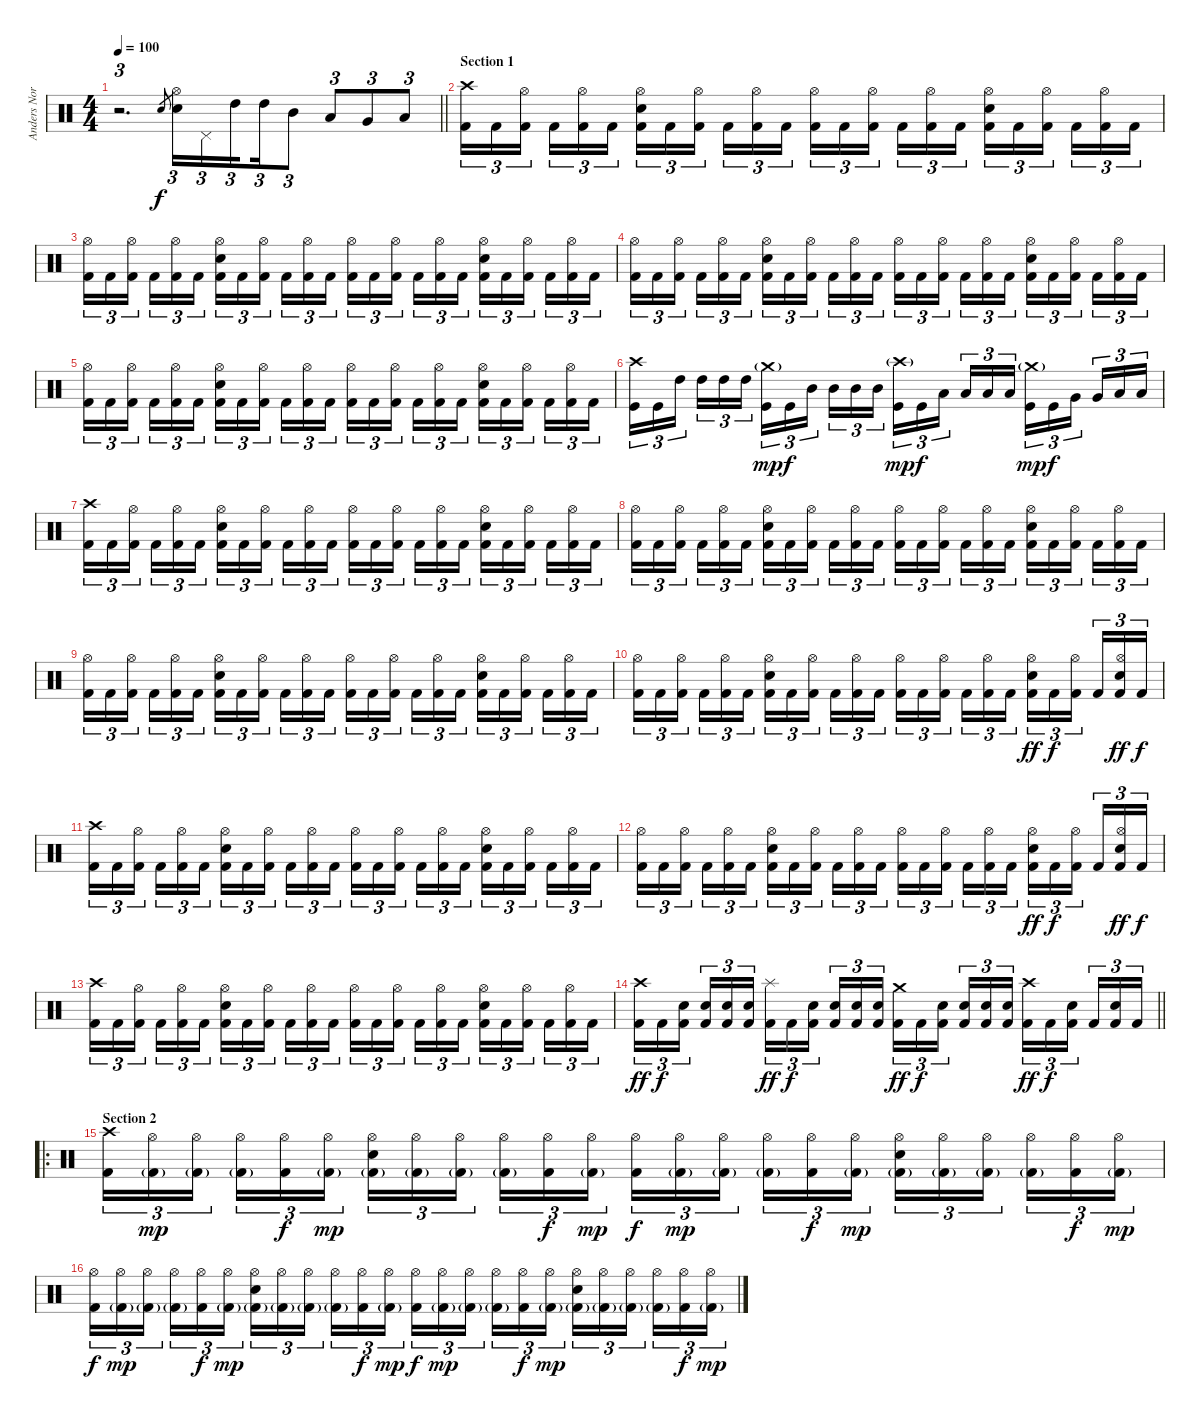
\track ("Anders Nordin" "Anders Nor") {instrument percussion}
\staff {score}
\articulation defaults
\ts (4 4)
\tempo 100
\clef neutral
\barLineRight lightlight
\ks c
r.2{d tu (3 2) dy f} "Snare (hit) 2".8{gr} ("Hi-Hat (open)" "Electric Snare (hit)").16{tu (3 2)} "Pedal Hi-Hat (hit)".16{tu (3 2)} "High Tom (hit)".16{tu (3 2) beam splitsecondary} "High Tom (hit)".16{tu (3 2)} "Mid Tom (hit)".8{tu (3 2)} "Low Tom (hit)".8{tu (3 2)} "Very Low Tom (hit)".8{tu (3 2)} "Low Floor Tom (hit)".8{tu (3 2)} |
\section ("" "Section 1")
("Crash high (hit)" "Kick (hit) 2").16{tu (3 2)} "Kick (hit) 2".16{tu (3 2)} ("Hi-Hat (open)" "Kick (hit) 2").16{tu (3 2) beam splitsecondary} "Kick (hit) 2".16{tu (3 2)} ("Hi-Hat (open)" "Kick (hit) 2").16{tu (3 2)} "Kick (hit) 2".16{tu (3 2)} ("Hi-Hat (open)" "Snare (hit) 2" "Kick (hit) 2").16{tu (3 2)} "Kick (hit) 2".16{tu (3 2)} ("Hi-Hat (open)" "Kick (hit) 2").16{tu (3 2) beam splitsecondary} "Kick (hit) 2".16{tu (3 2)} ("Hi-Hat (open)" "Kick (hit) 2").16{tu (3 2)} "Kick (hit) 2".16{tu (3 2)} ("Hi-Hat (open)" "Kick (hit) 2").16{tu (3 2)} "Kick (hit) 2".16{tu (3 2)} ("Hi-Hat (open)" "Kick (hit) 2").16{tu (3 2) beam splitsecondary} "Kick (hit) 2".16{tu (3 2)} ("Hi-Hat (open)" "Kick (hit) 2").16{tu (3 2)} "Kick (hit) 2".16{tu (3 2)} ("Hi-Hat (open)" "Snare (hit) 2" "Kick (hit) 2").16{tu (3 2)} "Kick (hit) 2".16{tu (3 2)} ("Hi-Hat (open)" "Kick (hit) 2").16{tu (3 2) beam splitsecondary} "Kick (hit) 2".16{tu (3 2)} ("Hi-Hat (open)" "Kick (hit) 2").16{tu (3 2)} "Kick (hit) 2".16{tu (3 2)} |
("Hi-Hat (open)" "Kick (hit) 2").16{tu (3 2)} "Kick (hit) 2".16{tu (3 2)} ("Hi-Hat (open)" "Kick (hit) 2").16{tu (3 2) beam splitsecondary} "Kick (hit) 2".16{tu (3 2)} ("Hi-Hat (open)" "Kick (hit) 2").16{tu (3 2)} "Kick (hit) 2".16{tu (3 2)} ("Hi-Hat (open)" "Snare (hit) 2" "Kick (hit) 2").16{tu (3 2)} "Kick (hit) 2".16{tu (3 2)} ("Hi-Hat (open)" "Kick (hit) 2").16{tu (3 2) beam splitsecondary} "Kick (hit) 2".16{tu (3 2)} ("Hi-Hat (open)" "Kick (hit) 2").16{tu (3 2)} "Kick (hit) 2".16{tu (3 2)} ("Hi-Hat (open)" "Kick (hit) 2").16{tu (3 2)} "Kick (hit) 2".16{tu (3 2)} ("Hi-Hat (open)" "Kick (hit) 2").16{tu (3 2) beam splitsecondary} "Kick (hit) 2".16{tu (3 2)} ("Hi-Hat (open)" "Kick (hit) 2").16{tu (3 2)} "Kick (hit) 2".16{tu (3 2)} ("Hi-Hat (open)" "Snare (hit) 2" "Kick (hit) 2").16{tu (3 2)} "Kick (hit) 2".16{tu (3 2)} ("Hi-Hat (open)" "Kick (hit) 2").16{tu (3 2) beam splitsecondary} "Kick (hit) 2".16{tu (3 2)} ("Hi-Hat (open)" "Kick (hit) 2").16{tu (3 2)} "Kick (hit) 2".16{tu (3 2)} |
("Hi-Hat (open)" "Kick (hit) 2").16{tu (3 2)} "Kick (hit) 2".16{tu (3 2)} ("Hi-Hat (open)" "Kick (hit) 2").16{tu (3 2) beam splitsecondary} "Kick (hit) 2".16{tu (3 2)} ("Hi-Hat (open)" "Kick (hit) 2").16{tu (3 2)} "Kick (hit) 2".16{tu (3 2)} ("Hi-Hat (open)" "Snare (hit) 2" "Kick (hit) 2").16{tu (3 2)} "Kick (hit) 2".16{tu (3 2)} ("Hi-Hat (open)" "Kick (hit) 2").16{tu (3 2) beam splitsecondary} "Kick (hit) 2".16{tu (3 2)} ("Hi-Hat (open)" "Kick (hit) 2").16{tu (3 2)} "Kick (hit) 2".16{tu (3 2)} ("Hi-Hat (open)" "Kick (hit) 2").16{tu (3 2)} "Kick (hit) 2".16{tu (3 2)} ("Hi-Hat (open)" "Kick (hit) 2").16{tu (3 2) beam splitsecondary} "Kick (hit) 2".16{tu (3 2)} ("Hi-Hat (open)" "Kick (hit) 2").16{tu (3 2)} "Kick (hit) 2".16{tu (3 2)} ("Hi-Hat (open)" "Snare (hit) 2" "Kick (hit) 2").16{tu (3 2)} "Kick (hit) 2".16{tu (3 2)} ("Hi-Hat (open)" "Kick (hit) 2").16{tu (3 2) beam splitsecondary} "Kick (hit) 2".16{tu (3 2)} ("Hi-Hat (open)" "Kick (hit) 2").16{tu (3 2)} "Kick (hit) 2".16{tu (3 2)} |
("Hi-Hat (open)" "Kick (hit) 2").16{tu (3 2)} "Kick (hit) 2".16{tu (3 2)} ("Hi-Hat (open)" "Kick (hit) 2").16{tu (3 2) beam splitsecondary} "Kick (hit) 2".16{tu (3 2)} ("Hi-Hat (open)" "Kick (hit) 2").16{tu (3 2)} "Kick (hit) 2".16{tu (3 2)} ("Hi-Hat (open)" "Snare (hit) 2" "Kick (hit) 2").16{tu (3 2)} "Kick (hit) 2".16{tu (3 2)} ("Hi-Hat (open)" "Kick (hit) 2").16{tu (3 2) beam splitsecondary} "Kick (hit) 2".16{tu (3 2)} ("Hi-Hat (open)" "Kick (hit) 2").16{tu (3 2)} "Kick (hit) 2".16{tu (3 2)} ("Hi-Hat (open)" "Kick (hit) 2").16{tu (3 2)} "Kick (hit) 2".16{tu (3 2)} ("Hi-Hat (open)" "Kick (hit) 2").16{tu (3 2) beam splitsecondary} "Kick (hit) 2".16{tu (3 2)} ("Hi-Hat (open)" "Kick (hit) 2").16{tu (3 2)} "Kick (hit) 2".16{tu (3 2)} ("Hi-Hat (open)" "Snare (hit) 2" "Kick (hit) 2").16{tu (3 2)} "Kick (hit) 2".16{tu (3 2)} ("Hi-Hat (open)" "Kick (hit) 2").16{tu (3 2) beam splitsecondary} "Kick (hit) 2".16{tu (3 2)} ("Hi-Hat (open)" "Kick (hit) 2").16{tu (3 2)} "Kick (hit) 2".16{tu (3 2)} |
("Crash high (hit)" "Kick (hit)").16{tu (3 2)} "Kick (hit)".16{tu (3 2)} "High Tom (hit)".16{tu (3 2) beam splitsecondary} "High Tom (hit)".16{tu (3 2)} "High Tom (hit)".16{tu (3 2)} "High Tom (hit)".16{tu (3 2)} ("Crash medium (hit)"{g} "Kick (hit)").16{tu (3 2) dy mp} "Kick (hit)".16{tu (3 2) dy f} "Mid Tom (hit)".16{tu (3 2) beam splitsecondary} "Mid Tom (hit)".16{tu (3 2)} "Mid Tom (hit)".16{tu (3 2)} "Mid Tom (hit)".16{tu (3 2)} ("Crash high (hit)"{g} "Kick (hit)").16{tu (3 2) dy mp} "Kick (hit)".16{tu (3 2) dy f} "Low Tom (hit)".16{tu (3 2) beam splitsecondary} "Low Tom (hit)".16{tu (3 2)} "Low Tom (hit)".16{tu (3 2)} "Low Tom (hit)".16{tu (3 2)} ("Crash medium (hit)"{g} "Kick (hit)").16{tu (3 2) dy mp} "Kick (hit)".16{tu (3 2) dy f} "Very Low Tom (hit)".16{tu (3 2) beam splitsecondary} "Very Low Tom (hit)".16{tu (3 2)} "Low Floor Tom (hit)".16{tu (3 2)} "Low Floor Tom (hit)".16{tu (3 2)} |
("Crash high (hit)" "Kick (hit) 2").16{tu (3 2)} "Kick (hit) 2".16{tu (3 2)} ("Hi-Hat (open)" "Kick (hit) 2").16{tu (3 2) beam splitsecondary} "Kick (hit) 2".16{tu (3 2)} ("Hi-Hat (open)" "Kick (hit) 2").16{tu (3 2)} "Kick (hit) 2".16{tu (3 2)} ("Hi-Hat (open)" "Snare (hit) 2" "Kick (hit) 2").16{tu (3 2)} "Kick (hit) 2".16{tu (3 2)} ("Hi-Hat (open)" "Kick (hit) 2").16{tu (3 2) beam splitsecondary} "Kick (hit) 2".16{tu (3 2)} ("Hi-Hat (open)" "Kick (hit) 2").16{tu (3 2)} "Kick (hit) 2".16{tu (3 2)} ("Hi-Hat (open)" "Kick (hit) 2").16{tu (3 2)} "Kick (hit) 2".16{tu (3 2)} ("Hi-Hat (open)" "Kick (hit) 2").16{tu (3 2) beam splitsecondary} "Kick (hit) 2".16{tu (3 2)} ("Hi-Hat (open)" "Kick (hit) 2").16{tu (3 2)} "Kick (hit) 2".16{tu (3 2)} ("Hi-Hat (open)" "Snare (hit) 2" "Kick (hit) 2").16{tu (3 2)} "Kick (hit) 2".16{tu (3 2)} ("Hi-Hat (open)" "Kick (hit) 2").16{tu (3 2) beam splitsecondary} "Kick (hit) 2".16{tu (3 2)} ("Hi-Hat (open)" "Kick (hit) 2").16{tu (3 2)} "Kick (hit) 2".16{tu (3 2)} |
("Hi-Hat (open)" "Kick (hit) 2").16{tu (3 2)} "Kick (hit) 2".16{tu (3 2)} ("Hi-Hat (open)" "Kick (hit) 2").16{tu (3 2) beam splitsecondary} "Kick (hit) 2".16{tu (3 2)} ("Hi-Hat (open)" "Kick (hit) 2").16{tu (3 2)} "Kick (hit) 2".16{tu (3 2)} ("Hi-Hat (open)" "Snare (hit) 2" "Kick (hit) 2").16{tu (3 2)} "Kick (hit) 2".16{tu (3 2)} ("Hi-Hat (open)" "Kick (hit) 2").16{tu (3 2) beam splitsecondary} "Kick (hit) 2".16{tu (3 2)} ("Hi-Hat (open)" "Kick (hit) 2").16{tu (3 2)} "Kick (hit) 2".16{tu (3 2)} ("Hi-Hat (open)" "Kick (hit) 2").16{tu (3 2)} "Kick (hit) 2".16{tu (3 2)} ("Hi-Hat (open)" "Kick (hit) 2").16{tu (3 2) beam splitsecondary} "Kick (hit) 2".16{tu (3 2)} ("Hi-Hat (open)" "Kick (hit) 2").16{tu (3 2)} "Kick (hit) 2".16{tu (3 2)} ("Hi-Hat (open)" "Snare (hit) 2" "Kick (hit) 2").16{tu (3 2)} "Kick (hit) 2".16{tu (3 2)} ("Hi-Hat (open)" "Kick (hit) 2").16{tu (3 2) beam splitsecondary} "Kick (hit) 2".16{tu (3 2)} ("Hi-Hat (open)" "Kick (hit) 2").16{tu (3 2)} "Kick (hit) 2".16{tu (3 2)} |
("Hi-Hat (open)" "Kick (hit) 2").16{tu (3 2)} "Kick (hit) 2".16{tu (3 2)} ("Hi-Hat (open)" "Kick (hit) 2").16{tu (3 2) beam splitsecondary} "Kick (hit) 2".16{tu (3 2)} ("Hi-Hat (open)" "Kick (hit) 2").16{tu (3 2)} "Kick (hit) 2".16{tu (3 2)} ("Hi-Hat (open)" "Snare (hit) 2" "Kick (hit) 2").16{tu (3 2)} "Kick (hit) 2".16{tu (3 2)} ("Hi-Hat (open)" "Kick (hit) 2").16{tu (3 2) beam splitsecondary} "Kick (hit) 2".16{tu (3 2)} ("Hi-Hat (open)" "Kick (hit) 2").16{tu (3 2)} "Kick (hit) 2".16{tu (3 2)} ("Hi-Hat (open)" "Kick (hit) 2").16{tu (3 2)} "Kick (hit) 2".16{tu (3 2)} ("Hi-Hat (open)" "Kick (hit) 2").16{tu (3 2) beam splitsecondary} "Kick (hit) 2".16{tu (3 2)} ("Hi-Hat (open)" "Kick (hit) 2").16{tu (3 2)} "Kick (hit) 2".16{tu (3 2)} ("Hi-Hat (open)" "Snare (hit) 2" "Kick (hit) 2").16{tu (3 2)} "Kick (hit) 2".16{tu (3 2)} ("Hi-Hat (open)" "Kick (hit) 2").16{tu (3 2) beam splitsecondary} "Kick (hit) 2".16{tu (3 2)} ("Hi-Hat (open)" "Kick (hit) 2").16{tu (3 2)} "Kick (hit) 2".16{tu (3 2)} |
("Hi-Hat (open)" "Kick (hit) 2").16{tu (3 2)} "Kick (hit) 2".16{tu (3 2)} ("Hi-Hat (open)" "Kick (hit) 2").16{tu (3 2) beam splitsecondary} "Kick (hit) 2".16{tu (3 2)} ("Hi-Hat (open)" "Kick (hit) 2").16{tu (3 2)} "Kick (hit) 2".16{tu (3 2)} ("Hi-Hat (open)" "Snare (hit) 2" "Kick (hit) 2").16{tu (3 2)} "Kick (hit) 2".16{tu (3 2)} ("Hi-Hat (open)" "Kick (hit) 2").16{tu (3 2) beam splitsecondary} "Kick (hit) 2".16{tu (3 2)} ("Hi-Hat (open)" "Kick (hit) 2").16{tu (3 2)} "Kick (hit) 2".16{tu (3 2)} ("Hi-Hat (open)" "Kick (hit) 2").16{tu (3 2)} "Kick (hit) 2".16{tu (3 2)} ("Hi-Hat (open)" "Kick (hit) 2").16{tu (3 2) beam splitsecondary} "Kick (hit) 2".16{tu (3 2)} ("Hi-Hat (open)" "Kick (hit) 2").16{tu (3 2)} "Kick (hit) 2".16{tu (3 2)} ("Hi-Hat (open)" "Snare (hit) 2" "Kick (hit) 2").16{tu (3 2) dy ff} "Kick (hit) 2".16{tu (3 2) dy f} ("Hi-Hat (open)" "Kick (hit) 2").16{tu (3 2) beam splitsecondary} "Kick (hit) 2".16{tu (3 2)} ("Hi-Hat (open)" "Snare (hit) 2" "Kick (hit) 2").16{tu (3 2) dy ff} "Kick (hit) 2".16{tu (3 2) dy f} |
("Crash high (hit)" "Kick (hit) 2").16{tu (3 2)} "Kick (hit) 2".16{tu (3 2)} ("Hi-Hat (open)" "Kick (hit) 2").16{tu (3 2) beam splitsecondary} "Kick (hit) 2".16{tu (3 2)} ("Hi-Hat (open)" "Kick (hit) 2").16{tu (3 2)} "Kick (hit) 2".16{tu (3 2)} ("Hi-Hat (open)" "Snare (hit) 2" "Kick (hit) 2").16{tu (3 2)} "Kick (hit) 2".16{tu (3 2)} ("Hi-Hat (open)" "Kick (hit) 2").16{tu (3 2) beam splitsecondary} "Kick (hit) 2".16{tu (3 2)} ("Hi-Hat (open)" "Kick (hit) 2").16{tu (3 2)} "Kick (hit) 2".16{tu (3 2)} ("Hi-Hat (open)" "Kick (hit) 2").16{tu (3 2)} "Kick (hit) 2".16{tu (3 2)} ("Hi-Hat (open)" "Kick (hit) 2").16{tu (3 2) beam splitsecondary} "Kick (hit) 2".16{tu (3 2)} ("Hi-Hat (open)" "Kick (hit) 2").16{tu (3 2)} "Kick (hit) 2".16{tu (3 2)} ("Hi-Hat (open)" "Snare (hit) 2" "Kick (hit) 2").16{tu (3 2)} "Kick (hit) 2".16{tu (3 2)} ("Hi-Hat (open)" "Kick (hit) 2").16{tu (3 2) beam splitsecondary} "Kick (hit) 2".16{tu (3 2)} ("Hi-Hat (open)" "Kick (hit) 2").16{tu (3 2)} "Kick (hit) 2".16{tu (3 2)} |
("Hi-Hat (open)" "Kick (hit) 2").16{tu (3 2)} "Kick (hit) 2".16{tu (3 2)} ("Hi-Hat (open)" "Kick (hit) 2").16{tu (3 2) beam splitsecondary} "Kick (hit) 2".16{tu (3 2)} ("Hi-Hat (open)" "Kick (hit) 2").16{tu (3 2)} "Kick (hit) 2".16{tu (3 2)} ("Hi-Hat (open)" "Snare (hit) 2" "Kick (hit) 2").16{tu (3 2)} "Kick (hit) 2".16{tu (3 2)} ("Hi-Hat (open)" "Kick (hit) 2").16{tu (3 2) beam splitsecondary} "Kick (hit) 2".16{tu (3 2)} ("Hi-Hat (open)" "Kick (hit) 2").16{tu (3 2)} "Kick (hit) 2".16{tu (3 2)} ("Hi-Hat (open)" "Kick (hit) 2").16{tu (3 2)} "Kick (hit) 2".16{tu (3 2)} ("Hi-Hat (open)" "Kick (hit) 2").16{tu (3 2) beam splitsecondary} "Kick (hit) 2".16{tu (3 2)} ("Hi-Hat (open)" "Kick (hit) 2").16{tu (3 2)} "Kick (hit) 2".16{tu (3 2)} ("Hi-Hat (open)" "Snare (hit) 2" "Kick (hit) 2").16{tu (3 2) dy ff} "Kick (hit) 2".16{tu (3 2) dy f} ("Hi-Hat (open)" "Kick (hit) 2").16{tu (3 2) beam splitsecondary} "Kick (hit) 2".16{tu (3 2)} ("Hi-Hat (open)" "Snare (hit) 2" "Kick (hit) 2").16{tu (3 2) dy ff} "Kick (hit) 2".16{tu (3 2) dy f} |
("Crash high (hit)" "Kick (hit) 2").16{tu (3 2)} "Kick (hit) 2".16{tu (3 2)} ("Hi-Hat (open)" "Kick (hit) 2").16{tu (3 2) beam splitsecondary} "Kick (hit) 2".16{tu (3 2)} ("Hi-Hat (open)" "Kick (hit) 2").16{tu (3 2)} "Kick (hit) 2".16{tu (3 2)} ("Hi-Hat (open)" "Snare (hit) 2" "Kick (hit) 2").16{tu (3 2)} "Kick (hit) 2".16{tu (3 2)} ("Hi-Hat (open)" "Kick (hit) 2").16{tu (3 2) beam splitsecondary} "Kick (hit) 2".16{tu (3 2)} ("Hi-Hat (open)" "Kick (hit) 2").16{tu (3 2)} "Kick (hit) 2".16{tu (3 2)} ("Hi-Hat (open)" "Kick (hit) 2").16{tu (3 2)} "Kick (hit) 2".16{tu (3 2)} ("Hi-Hat (open)" "Kick (hit) 2").16{tu (3 2) beam splitsecondary} "Kick (hit) 2".16{tu (3 2)} ("Hi-Hat (open)" "Kick (hit) 2").16{tu (3 2)} "Kick (hit) 2".16{tu (3 2)} ("Hi-Hat (open)" "Snare (hit) 2" "Kick (hit) 2").16{tu (3 2)} "Kick (hit) 2".16{tu (3 2)} ("Hi-Hat (open)" "Kick (hit) 2").16{tu (3 2) beam splitsecondary} "Kick (hit) 2".16{tu (3 2)} ("Hi-Hat (open)" "Kick (hit) 2").16{tu (3 2)} "Kick (hit) 2".16{tu (3 2)} |
\barLineRight lightlight
("Crash high (hit)" "Kick (hit) 2").16{tu (3 2) dy ff} "Kick (hit) 2".16{tu (3 2) dy f} ("Snare (hit) 2" "Kick (hit) 2").16{tu (3 2) beam splitsecondary} ("Snare (hit) 2" "Kick (hit) 2").16{tu (3 2)} ("Snare (hit) 2" "Kick (hit) 2").16{tu (3 2)} ("Snare (hit) 2" "Kick (hit) 2").16{tu (3 2)} ("Splash (hit)" "Kick (hit) 2").16{tu (3 2) dy ff} "Kick (hit) 2".16{tu (3 2) dy f} ("Snare (hit) 2" "Kick (hit) 2").16{tu (3 2) beam splitsecondary} ("Snare (hit) 2" "Kick (hit) 2").16{tu (3 2)} ("Snare (hit) 2" "Kick (hit) 2").16{tu (3 2)} ("Snare (hit) 2" "Kick (hit) 2").16{tu (3 2)} ("Crash medium (hit)" "Kick (hit) 2").16{tu (3 2) dy ff} "Kick (hit) 2".16{tu (3 2) dy f} ("Snare (hit) 2" "Kick (hit) 2").16{tu (3 2) beam splitsecondary} ("Snare (hit) 2" "Kick (hit) 2").16{tu (3 2)} ("Snare (hit) 2" "Kick (hit) 2").16{tu (3 2)} ("Snare (hit) 2" "Kick (hit) 2").16{tu (3 2)} ("Crash high (hit)" "Kick (hit) 2").16{tu (3 2) dy ff} "Kick (hit) 2".16{tu (3 2) dy f} ("Snare (hit) 2" "Kick (hit) 2").16{tu (3 2) beam splitsecondary} "Kick (hit) 2".16{tu (3 2)} ("Snare (hit) 2" "Kick (hit) 2").16{tu (3 2)} "Kick (hit) 2".16{tu (3 2)} |
\ro
\section ("" "Section 2")
("Crash high (hit)" "Kick (hit) 2").16{tu (3 2)} ("Hi-Hat (open)" "Kick (hit) 2"{g}).16{tu (3 2) dy mp} ("Hi-Hat (open)" "Kick (hit) 2"{g}).16{tu (3 2) beam splitsecondary} ("Hi-Hat (open)" "Kick (hit) 2"{g}).16{tu (3 2)} ("Hi-Hat (open)" "Kick (hit) 2").16{tu (3 2) dy f} ("Hi-Hat (open)" "Kick (hit) 2"{g}).16{tu (3 2) dy mp} ("Hi-Hat (open)" "Snare (hit) 2" "Kick (hit) 2"{g}).16{tu (3 2)} ("Hi-Hat (open)" "Kick (hit) 2"{g}).16{tu (3 2)} ("Hi-Hat (open)" "Kick (hit) 2"{g}).16{tu (3 2) beam splitsecondary} ("Hi-Hat (open)" "Kick (hit) 2"{g}).16{tu (3 2)} ("Hi-Hat (open)" "Kick (hit) 2").16{tu (3 2) dy f} ("Hi-Hat (open)" "Kick (hit) 2"{g}).16{tu (3 2) dy mp} ("Hi-Hat (open)" "Kick (hit) 2").16{tu (3 2) dy f} ("Hi-Hat (open)" "Kick (hit) 2"{g}).16{tu (3 2) dy mp} ("Hi-Hat (open)" "Kick (hit) 2"{g}).16{tu (3 2) beam splitsecondary} ("Hi-Hat (open)" "Kick (hit) 2"{g}).16{tu (3 2)} ("Hi-Hat (open)" "Kick (hit) 2").16{tu (3 2) dy f} ("Hi-Hat (open)" "Kick (hit) 2"{g}).16{tu (3 2) dy mp} ("Hi-Hat (open)" "Snare (hit) 2" "Kick (hit) 2"{g}).16{tu (3 2)} ("Hi-Hat (open)" "Kick (hit) 2"{g}).16{tu (3 2)} ("Hi-Hat (open)" "Kick (hit) 2"{g}).16{tu (3 2) beam splitsecondary} ("Hi-Hat (open)" "Kick (hit) 2"{g}).16{tu (3 2)} ("Hi-Hat (open)" "Kick (hit) 2").16{tu (3 2) dy f} ("Hi-Hat (open)" "Kick (hit) 2"{g}).16{tu (3 2) dy mp} |
("Hi-Hat (open)" "Kick (hit) 2").16{tu (3 2) dy f} ("Hi-Hat (open)" "Kick (hit) 2"{g}).16{tu (3 2) dy mp} ("Hi-Hat (open)" "Kick (hit) 2"{g}).16{tu (3 2) beam splitsecondary} ("Hi-Hat (open)" "Kick (hit) 2"{g}).16{tu (3 2)} ("Hi-Hat (open)" "Kick (hit) 2").16{tu (3 2) dy f} ("Hi-Hat (open)" "Kick (hit) 2"{g}).16{tu (3 2) dy mp} ("Hi-Hat (open)" "Snare (hit) 2" "Kick (hit) 2"{g}).16{tu (3 2)} ("Hi-Hat (open)" "Kick (hit) 2"{g}).16{tu (3 2)} ("Hi-Hat (open)" "Kick (hit) 2"{g}).16{tu (3 2) beam splitsecondary} ("Hi-Hat (open)" "Kick (hit) 2"{g}).16{tu (3 2)} ("Hi-Hat (open)" "Kick (hit) 2").16{tu (3 2) dy f} ("Hi-Hat (open)" "Kick (hit) 2"{g}).16{tu (3 2) dy mp} ("Hi-Hat (open)" "Kick (hit) 2").16{tu (3 2) dy f} ("Hi-Hat (open)" "Kick (hit) 2"{g}).16{tu (3 2) dy mp} ("Hi-Hat (open)" "Kick (hit) 2"{g}).16{tu (3 2) beam splitsecondary} ("Hi-Hat (open)" "Kick (hit) 2"{g}).16{tu (3 2)} ("Hi-Hat (open)" "Kick (hit) 2").16{tu (3 2) dy f} ("Hi-Hat (open)" "Kick (hit) 2"{g}).16{tu (3 2) dy mp} ("Hi-Hat (open)" "Snare (hit) 2" "Kick (hit) 2"{g}).16{tu (3 2)} ("Hi-Hat (open)" "Kick (hit) 2"{g}).16{tu (3 2)} ("Hi-Hat (open)" "Kick (hit) 2"{g}).16{tu (3 2) beam splitsecondary} ("Hi-Hat (open)" "Kick (hit) 2"{g}).16{tu (3 2)} ("Hi-Hat (open)" "Kick (hit) 2").16{tu (3 2) dy f} ("Hi-Hat (open)" "Kick (hit) 2"{g}).16{tu (3 2) dy mp}
